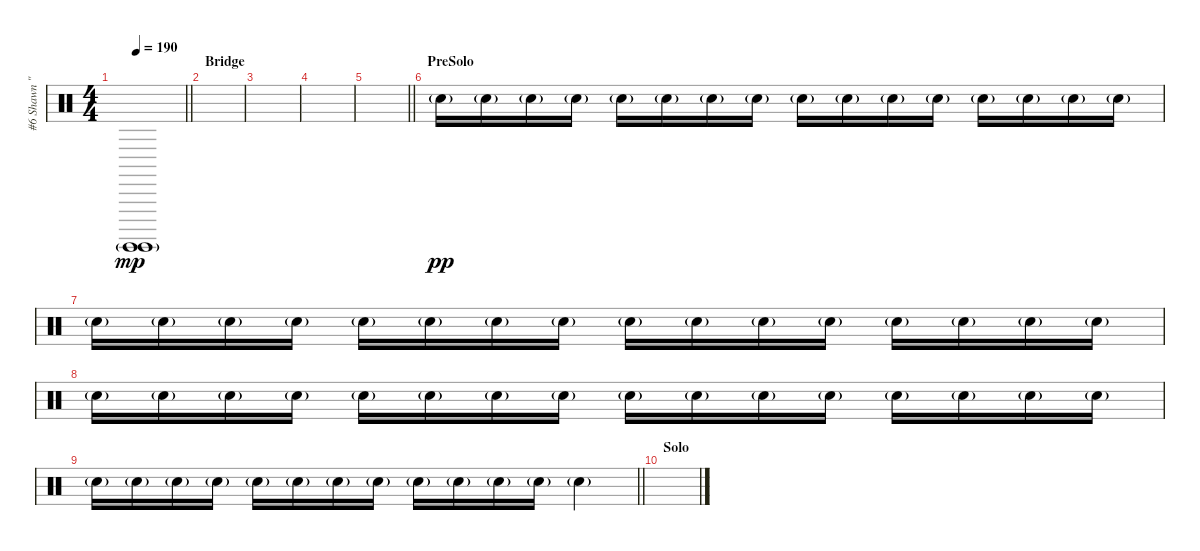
\track ("#6 Shawn \"Clown\" Crahan" "#6 Shawn \"") {instrument percussion}
\staff {score}
\articulation defaults
\ts (4 4)
\tempo 190
\clef neutral
\barLineRight lightlight
\ks c
("Surdo (hit)"{g} "Surdo (hit)"{g}).1{dy mp} |
\section ("" "Bridge")
|
|
|
\barLineRight lightlight
|
\section ("" "PreSolo")
"Electric Snare (hit)"{g}.16{dy pp} "Electric Snare (hit)"{g}.16 "Electric Snare (hit)"{g}.16 "Electric Snare (hit)"{g}.16 "Electric Snare (hit)"{g}.16 "Electric Snare (hit)"{g}.16 "Electric Snare (hit)"{g}.16 "Electric Snare (hit)"{g}.16 "Electric Snare (hit)"{g}.16 "Electric Snare (hit)"{g}.16 "Electric Snare (hit)"{g}.16 "Electric Snare (hit)"{g}.16 "Electric Snare (hit)"{g}.16 "Electric Snare (hit)"{g}.16 "Electric Snare (hit)"{g}.16 "Electric Snare (hit)"{g}.16 |
"Electric Snare (hit)"{g}.16 "Electric Snare (hit)"{g}.16 "Electric Snare (hit)"{g}.16 "Electric Snare (hit)"{g}.16 "Electric Snare (hit)"{g}.16 "Electric Snare (hit)"{g}.16 "Electric Snare (hit)"{g}.16 "Electric Snare (hit)"{g}.16 "Electric Snare (hit)"{g}.16 "Electric Snare (hit)"{g}.16 "Electric Snare (hit)"{g}.16 "Electric Snare (hit)"{g}.16 "Electric Snare (hit)"{g}.16 "Electric Snare (hit)"{g}.16 "Electric Snare (hit)"{g}.16 "Electric Snare (hit)"{g}.16 |
"Electric Snare (hit)"{g}.16 "Electric Snare (hit)"{g}.16 "Electric Snare (hit)"{g}.16 "Electric Snare (hit)"{g}.16 "Electric Snare (hit)"{g}.16 "Electric Snare (hit)"{g}.16 "Electric Snare (hit)"{g}.16 "Electric Snare (hit)"{g}.16 "Electric Snare (hit)"{g}.16 "Electric Snare (hit)"{g}.16 "Electric Snare (hit)"{g}.16 "Electric Snare (hit)"{g}.16 "Electric Snare (hit)"{g}.16 "Electric Snare (hit)"{g}.16 "Electric Snare (hit)"{g}.16 "Electric Snare (hit)"{g}.16 |
\barLineRight lightlight "Electric Snare (hit)"{g}.16 "Electric Snare (hit)"{g}.16 "Electric Snare (hit)"{g}.16 "Electric Snare (hit)"{g}.16 "Electric Snare (hit)"{g}.16 "Electric Snare (hit)"{g}.16 "Electric Snare (hit)"{g}.16 "Electric Snare (hit)"{g}.16 "Electric Snare (hit)"{g}.16 "Electric Snare (hit)"{g}.16 "Electric Snare (hit)"{g}.16 "Electric Snare (hit)"{g}.16 "Electric Snare (hit)"{g}.4
|
\section ("" "Solo")
